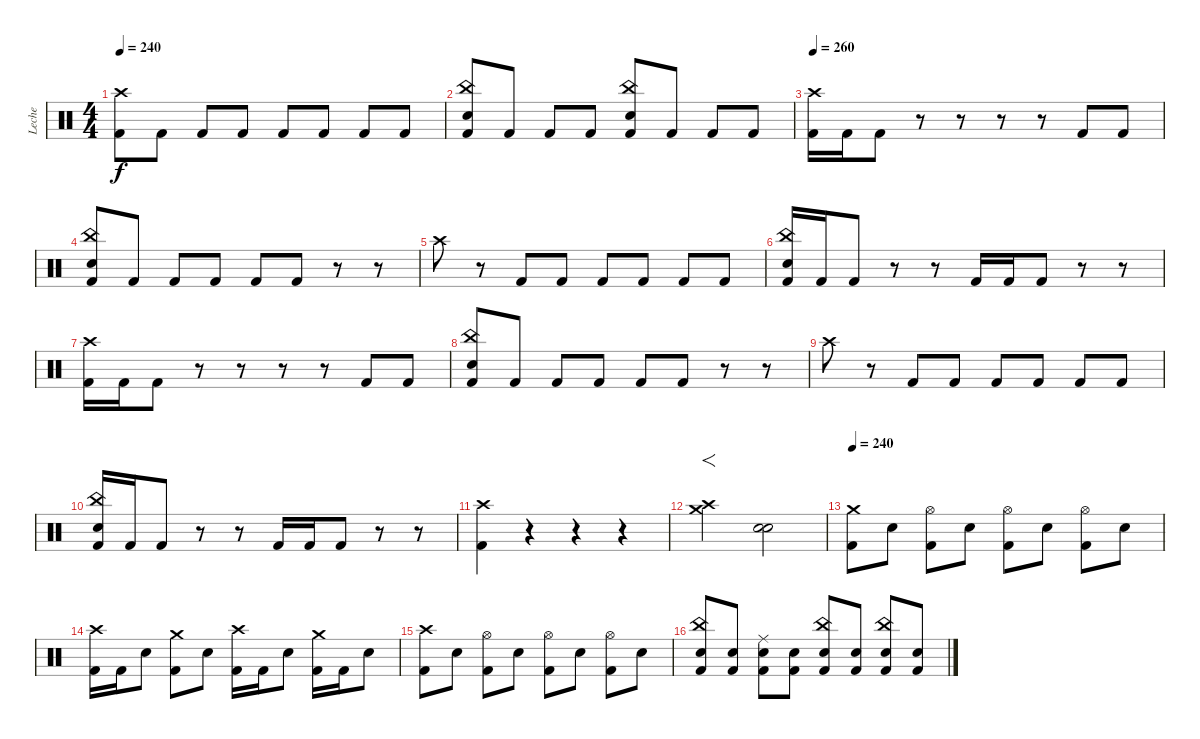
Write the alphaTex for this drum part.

\track ("Leche" "Leche") {instrument percussion}
\staff {score}
\articulation defaults
\ts (4 4)
\tempo 240
\clef neutral
\ks c
("Crash high (hit)" "Kick (hit) 2").8{dy f} "Kick (hit) 2".8 "Kick (hit) 2".8 "Kick (hit) 2".8 "Kick (hit) 2".8 "Kick (hit) 2".8 "Kick (hit) 2".8 "Kick (hit) 2".8 |
("China (hit)" "Electric Snare (hit)" "Kick (hit) 2").8 "Kick (hit) 2".8 "Kick (hit) 2".8 "Kick (hit) 2".8 ("China (hit)" "Electric Snare (hit)" "Kick (hit) 2").8 "Kick (hit) 2".8 "Kick (hit) 2".8 "Kick (hit) 2".8 |
\tempo 260
("Crash high (hit)" "Kick (hit) 2").16 "Kick (hit) 2".16 "Kick (hit) 2".8 r.8 r.8 r.8 r.8 "Kick (hit) 2".8 "Kick (hit) 2".8 |
("China (hit)" "Electric Snare (hit)" "Kick (hit) 2").8 "Kick (hit) 2".8 "Kick (hit) 2".8 "Kick (hit) 2".8 "Kick (hit) 2".8 "Kick (hit) 2".8 r.8 r.8 |
"Crash high (hit)".8 r.8 "Kick (hit) 2".8 "Kick (hit) 2".8 "Kick (hit) 2".8 "Kick (hit) 2".8 "Kick (hit) 2".8 "Kick (hit) 2".8 |
("China (hit)" "Electric Snare (hit)" "Kick (hit) 2").16 "Kick (hit) 2".16 "Kick (hit) 2".8 r.8 r.8 "Kick (hit) 2".16 "Kick (hit) 2".16 "Kick (hit) 2".8 r.8 r.8 |
("Crash high (hit)" "Kick (hit) 2").16 "Kick (hit) 2".16 "Kick (hit) 2".8 r.8 r.8 r.8 r.8 "Kick (hit) 2".8 "Kick (hit) 2".8 |
("China (hit)" "Electric Snare (hit)" "Kick (hit) 2").8 "Kick (hit) 2".8 "Kick (hit) 2".8 "Kick (hit) 2".8 "Kick (hit) 2".8 "Kick (hit) 2".8 r.8 r.8 |
"Crash high (hit)".8 r.8 "Kick (hit) 2".8 "Kick (hit) 2".8 "Kick (hit) 2".8 "Kick (hit) 2".8 "Kick (hit) 2".8 "Kick (hit) 2".8 |
("China (hit)" "Electric Snare (hit)" "Kick (hit) 2").16 "Kick (hit) 2".16 "Kick (hit) 2".8 r.8 r.8 "Kick (hit) 2".16 "Kick (hit) 2".16 "Kick (hit) 2".8 r.8 r.8 |
("Crash high (hit)" "Kick (hit) 2").4 r.4{volume 0} r.4 r.4 |
("Crash high (hit)" "Crash medium (hit)").2{f volume 16} ("Electric Snare (hit)" "Electric Snare (hit)").2{bu 120} |
\tempo 240
("Crash medium (hit)" "Kick (hit) 2").8 "Electric Snare (hit)".8 ("Hi-Hat (open)" "Kick (hit) 2").8 "Electric Snare (hit)".8 ("Hi-Hat (open)" "Kick (hit) 2").8 "Electric Snare (hit)".8 ("Hi-Hat (open)" "Kick (hit) 2").8 "Electric Snare (hit)".8 |
("Crash high (hit)" "Kick (hit) 2").16 "Kick (hit) 2".16 "Electric Snare (hit)".8 ("Crash medium (hit)" "Kick (hit) 2").8 "Electric Snare (hit)".8 ("Crash high (hit)" "Kick (hit) 2").16 "Kick (hit) 2".16 "Electric Snare (hit)".8 ("Crash medium (hit)" "Kick (hit) 2").16 "Kick (hit) 2".16 "Electric Snare (hit)".8 |
("Crash high (hit)" "Kick (hit) 2").8 "Electric Snare (hit)".8 ("Hi-Hat (open)" "Kick (hit) 2").8 "Electric Snare (hit)".8 ("Hi-Hat (open)" "Kick (hit) 2").8 "Electric Snare (hit)".8 ("Hi-Hat (open)" "Kick (hit) 2").8 "Electric Snare (hit)".8 |
("China (hit)" "Electric Snare (hit)" "Kick (hit) 2").8 ("Electric Snare (hit)" "Kick (hit) 2").8 ("Ride (middle)" "Electric Snare (hit)" "Kick (hit) 2").8 ("Electric Snare (hit)" "Kick (hit) 2").8 ("China (hit)" "Electric Snare (hit)" "Kick (hit) 2").8 ("Electric Snare (hit)" "Kick (hit) 2").8 ("China (hit)" "Electric Snare (hit)" "Kick (hit) 2").8 ("Electric Snare (hit)" "Kick (hit) 2").8
